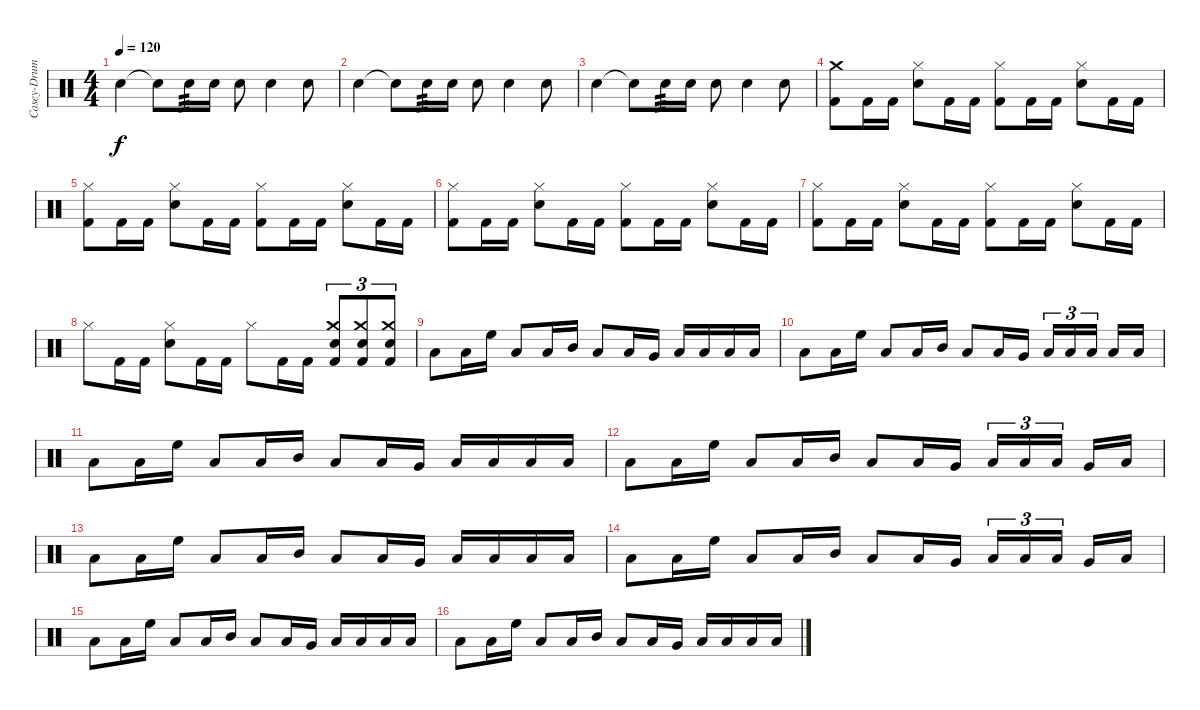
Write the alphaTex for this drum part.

\track ("Casey-Drums" "Casey-Drum") {instrument percussion}
\staff {score}
\articulation defaults
\ts (4 4)
\tempo 120
\clef neutral
\ks c "Electric Snare (hit)".4{dy f} "Electric Snare (hit)"{t}.8 "Electric Snare (hit)".16{tp 3} "Electric Snare (hit)".16 "Electric Snare (hit)".8 "Electric Snare (hit)".4 "Electric Snare (hit)".8
|
"Electric Snare (hit)".4 "Electric Snare (hit)"{t}.8 "Electric Snare (hit)".16{tp 3} "Electric Snare (hit)".16 "Electric Snare (hit)".8 "Electric Snare (hit)".4 "Electric Snare (hit)".8 |
"Electric Snare (hit)".4 "Electric Snare (hit)"{t}.8 "Electric Snare (hit)".16{tp 3} "Electric Snare (hit)".16 "Electric Snare (hit)".8 "Electric Snare (hit)".4 "Electric Snare (hit)".8 |
("Crash medium (hit)" "Kick (hit) 2").8 "Kick (hit) 2".16 "Kick (hit) 2".16 ("Electric Snare (hit)" "Hi-Hat (closed)").8 "Kick (hit) 2".16 "Kick (hit) 2".16 ("Hi-Hat (closed)" "Kick (hit) 2").8 "Kick (hit) 2".16 "Kick (hit) 2".16 ("Electric Snare (hit)" "Hi-Hat (closed)").8 "Kick (hit) 2".16 "Kick (hit) 2".16 |
("Hi-Hat (closed)" "Kick (hit) 2").8 "Kick (hit) 2".16 "Kick (hit) 2".16 ("Electric Snare (hit)" "Hi-Hat (closed)").8 "Kick (hit) 2".16 "Kick (hit) 2".16 ("Hi-Hat (closed)" "Kick (hit) 2").8 "Kick (hit) 2".16 "Kick (hit) 2".16 ("Electric Snare (hit)" "Hi-Hat (closed)").8 "Kick (hit) 2".16 "Kick (hit) 2".16 |
("Hi-Hat (closed)" "Kick (hit) 2").8 "Kick (hit) 2".16 "Kick (hit) 2".16 ("Electric Snare (hit)" "Hi-Hat (closed)").8 "Kick (hit) 2".16 "Kick (hit) 2".16 ("Hi-Hat (closed)" "Kick (hit) 2").8 "Kick (hit) 2".16 "Kick (hit) 2".16 ("Electric Snare (hit)" "Hi-Hat (closed)").8 "Kick (hit) 2".16 "Kick (hit) 2".16 |
("Hi-Hat (closed)" "Kick (hit) 2").8 "Kick (hit) 2".16 "Kick (hit) 2".16 ("Electric Snare (hit)" "Hi-Hat (closed)").8 "Kick (hit) 2".16 "Kick (hit) 2".16 ("Hi-Hat (closed)" "Kick (hit) 2").8 "Kick (hit) 2".16 "Kick (hit) 2".16 ("Electric Snare (hit)" "Hi-Hat (closed)").8 "Kick (hit) 2".16 "Kick (hit) 2".16 |
"Hi-Hat (closed)".8 "Kick (hit) 2".16 "Kick (hit) 2".16 ("Hi-Hat (closed)" "Electric Snare (hit)").8 "Kick (hit) 2".16 "Kick (hit) 2".16 "Hi-Hat (closed)".8 "Kick (hit) 2".16 "Kick (hit) 2".16 ("Crash medium (hit)" "Electric Snare (hit)" "Kick (hit) 2").8{tu (3 2)} ("Crash medium (hit)" "Electric Snare (hit)" "Kick (hit) 2").8{tu (3 2)} ("Crash medium (hit)" "Electric Snare (hit)" "Kick (hit) 2").8{tu (3 2)} |
"Low Floor Tom (hit)".8 "Low Floor Tom (hit)".16 "High Floor Tom (hit)".16 "Low Floor Tom (hit)".8 "Low Floor Tom (hit)".16 "Mid Tom (hit)".16 "Low Floor Tom (hit)".8 "Low Floor Tom (hit)".16 "Very Low Tom (hit)".16 "Low Floor Tom (hit)".16 "Low Floor Tom (hit)".16 "Low Floor Tom (hit)".16 "Low Floor Tom (hit)".16 |
"Low Floor Tom (hit)".8 "Low Floor Tom (hit)".16 "High Floor Tom (hit)".16 "Low Floor Tom (hit)".8 "Low Floor Tom (hit)".16 "Mid Tom (hit)".16 "Low Floor Tom (hit)".8 "Low Floor Tom (hit)".16 "Very Low Tom (hit)".16 "Low Floor Tom (hit)".16{tu (3 2)} "Low Floor Tom (hit)".16{tu (3 2)} "Low Floor Tom (hit)".16{tu (3 2) beam splitsecondary} "Low Floor Tom (hit)".16 "Low Floor Tom (hit)".16 |
"Low Floor Tom (hit)".8 "Low Floor Tom (hit)".16 "High Floor Tom (hit)".16 "Low Floor Tom (hit)".8 "Low Floor Tom (hit)".16 "Mid Tom (hit)".16 "Low Floor Tom (hit)".8 "Low Floor Tom (hit)".16 "Very Low Tom (hit)".16 "Low Floor Tom (hit)".16 "Low Floor Tom (hit)".16 "Low Floor Tom (hit)".16 "Low Floor Tom (hit)".16 |
"Low Floor Tom (hit)".8 "Low Floor Tom (hit)".16 "High Floor Tom (hit)".16 "Low Floor Tom (hit)".8 "Low Floor Tom (hit)".16 "Mid Tom (hit)".16 "Low Floor Tom (hit)".8 "Low Floor Tom (hit)".16 "Very Low Tom (hit)".16 "Low Floor Tom (hit)".16{tu (3 2)} "Low Floor Tom (hit)".16{tu (3 2)} "Low Floor Tom (hit)".16{tu (3 2) beam splitsecondary} "Very Low Tom (hit)".16 "Low Floor Tom (hit)".16 |
"Low Floor Tom (hit)".8 "Low Floor Tom (hit)".16 "High Floor Tom (hit)".16 "Low Floor Tom (hit)".8 "Low Floor Tom (hit)".16 "Mid Tom (hit)".16 "Low Floor Tom (hit)".8 "Low Floor Tom (hit)".16 "Very Low Tom (hit)".16 "Low Floor Tom (hit)".16 "Low Floor Tom (hit)".16 "Low Floor Tom (hit)".16 "Low Floor Tom (hit)".16 |
"Low Floor Tom (hit)".8 "Low Floor Tom (hit)".16 "High Floor Tom (hit)".16 "Low Floor Tom (hit)".8 "Low Floor Tom (hit)".16 "Mid Tom (hit)".16 "Low Floor Tom (hit)".8 "Low Floor Tom (hit)".16 "Very Low Tom (hit)".16 "Low Floor Tom (hit)".16{tu (3 2)} "Low Floor Tom (hit)".16{tu (3 2)} "Low Floor Tom (hit)".16{tu (3 2) beam splitsecondary} "Very Low Tom (hit)".16 "Low Floor Tom (hit)".16 |
"Low Floor Tom (hit)".8 "Low Floor Tom (hit)".16 "High Floor Tom (hit)".16 "Low Floor Tom (hit)".8 "Low Floor Tom (hit)".16 "Mid Tom (hit)".16 "Low Floor Tom (hit)".8 "Low Floor Tom (hit)".16 "Very Low Tom (hit)".16 "Low Floor Tom (hit)".16 "Low Floor Tom (hit)".16 "Low Floor Tom (hit)".16 "Low Floor Tom (hit)".16 |
"Low Floor Tom (hit)".8 "Low Floor Tom (hit)".16 "High Floor Tom (hit)".16 "Low Floor Tom (hit)".8 "Low Floor Tom (hit)".16 "Mid Tom (hit)".16 "Low Floor Tom (hit)".8 "Low Floor Tom (hit)".16 "Very Low Tom (hit)".16 "Low Floor Tom (hit)".16 "Low Floor Tom (hit)".16 "Low Floor Tom (hit)".16 "Low Floor Tom (hit)".16
